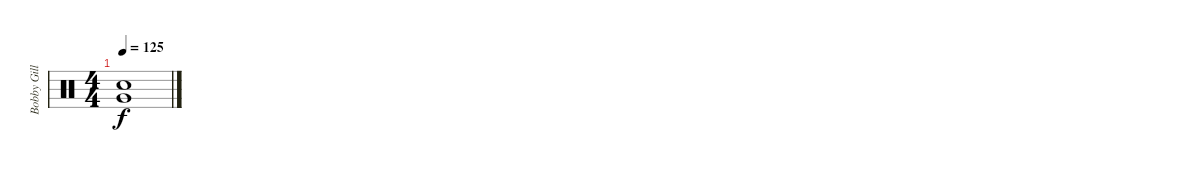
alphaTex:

\track ("Bobby Gillespie" "Bobby Gill") {instrument percussion}
\staff {score}
\articulation defaults
\ts (4 4)
\tempo 125
\clef neutral
\ks c
("Electric Snare (hit)" "Very Low Tom (hit)").1{dy f}
